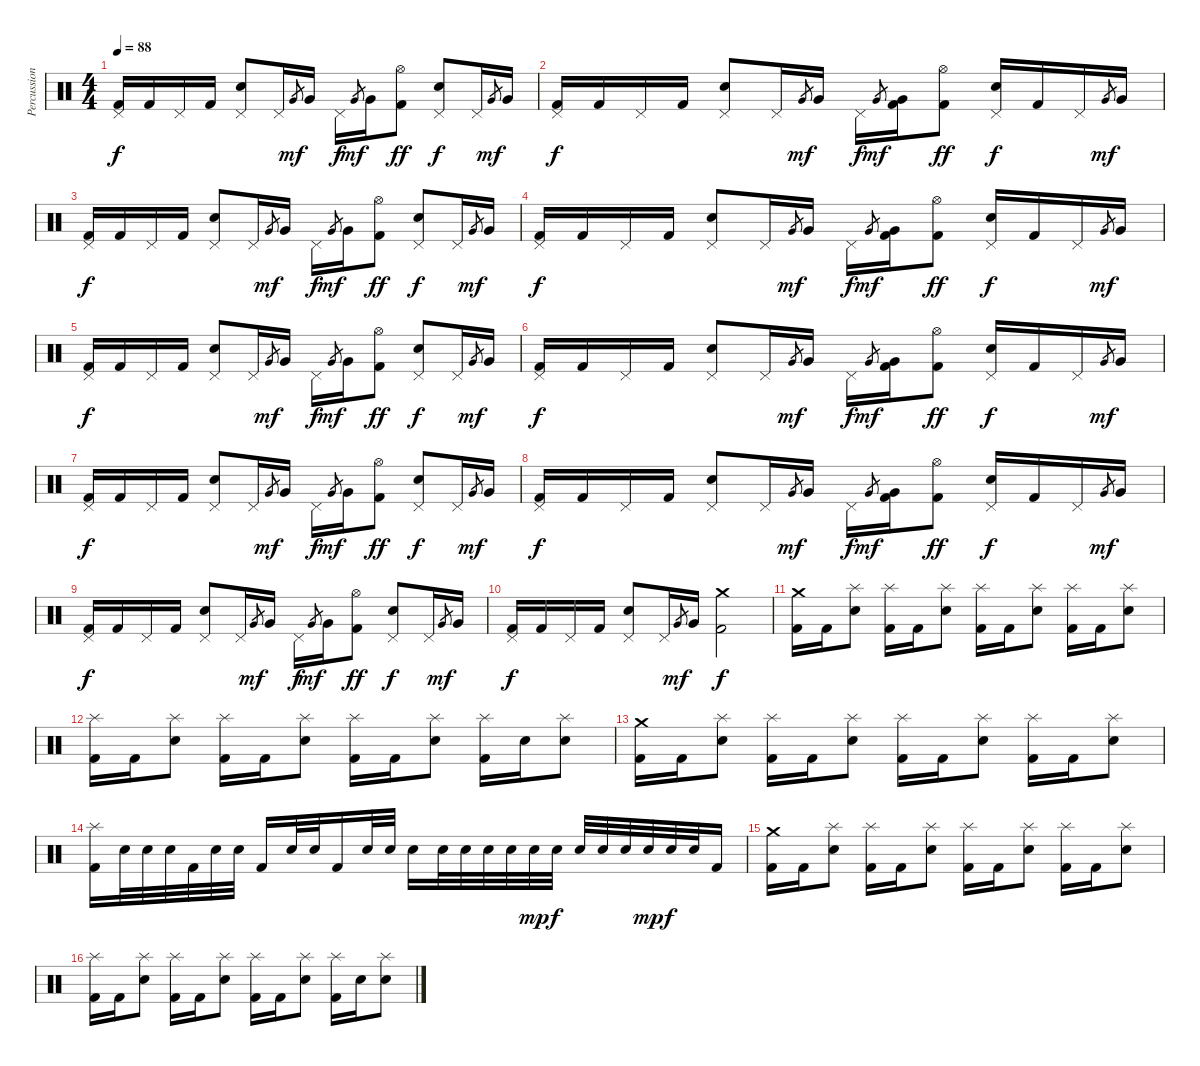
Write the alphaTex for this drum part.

\track ("Percussion" "Percussion") {instrument percussion}
\staff {score}
\articulation defaults
\ts (4 4)
\tempo 88
\clef neutral
\ks c
("Pedal Hi-Hat (hit)" "Kick (hit) 2").16{dy f} "Kick (hit) 2".16 "Pedal Hi-Hat (hit)".16 "Kick (hit) 2".16 ("Pedal Hi-Hat (hit)" "Electric Snare (hit)").8 "Pedal Hi-Hat (hit)".16 "Very Low Tom (hit)"{sl}.8{gr dy mf} "Very Low Tom (hit)".16 "Pedal Hi-Hat (hit)".16{dy f} "Very Low Tom (hit)"{sl}.8{gr dy mf} "Very Low Tom (hit)".16 ("Hi-Hat (open)" "Kick (hit) 2").8{dy ff} ("Pedal Hi-Hat (hit)" "Electric Snare (hit)").8{dy f} "Pedal Hi-Hat (hit)".16 "Very Low Tom (hit)"{sl}.8{gr dy mf} "Very Low Tom (hit)".16 |
("Pedal Hi-Hat (hit)" "Kick (hit) 2").16{dy f} "Kick (hit) 2".16 "Pedal Hi-Hat (hit)".16 "Kick (hit) 2".16 ("Pedal Hi-Hat (hit)" "Electric Snare (hit)").8 "Pedal Hi-Hat (hit)".16 "Very Low Tom (hit)"{sl}.8{gr dy mf} "Very Low Tom (hit)".16 "Pedal Hi-Hat (hit)".16{dy f} "Very Low Tom (hit)"{sl}.8{gr dy mf} ("Very Low Tom (hit)" "Kick (hit) 2").16 ("Hi-Hat (open)" "Kick (hit) 2").8{dy ff} ("Pedal Hi-Hat (hit)" "Electric Snare (hit)").16{dy f} "Kick (hit) 2".16 "Pedal Hi-Hat (hit)".16 "Very Low Tom (hit)"{sl}.8{gr dy mf} "Very Low Tom (hit)".16 |
("Pedal Hi-Hat (hit)" "Kick (hit) 2").16{dy f} "Kick (hit) 2".16 "Pedal Hi-Hat (hit)".16 "Kick (hit) 2".16 ("Pedal Hi-Hat (hit)" "Electric Snare (hit)").8 "Pedal Hi-Hat (hit)".16 "Very Low Tom (hit)"{sl}.8{gr dy mf} "Very Low Tom (hit)".16 "Pedal Hi-Hat (hit)".16{dy f} "Very Low Tom (hit)"{sl}.8{gr dy mf} "Very Low Tom (hit)".16 ("Hi-Hat (open)" "Kick (hit) 2").8{dy ff} ("Pedal Hi-Hat (hit)" "Electric Snare (hit)").8{dy f} "Pedal Hi-Hat (hit)".16 "Very Low Tom (hit)"{sl}.8{gr dy mf} "Very Low Tom (hit)".16 |
("Pedal Hi-Hat (hit)" "Kick (hit) 2").16{dy f} "Kick (hit) 2".16 "Pedal Hi-Hat (hit)".16 "Kick (hit) 2".16 ("Pedal Hi-Hat (hit)" "Electric Snare (hit)").8 "Pedal Hi-Hat (hit)".16 "Very Low Tom (hit)"{sl}.8{gr dy mf} "Very Low Tom (hit)".16 "Pedal Hi-Hat (hit)".16{dy f} "Very Low Tom (hit)"{sl}.8{gr dy mf} ("Very Low Tom (hit)" "Kick (hit) 2").16 ("Hi-Hat (open)" "Kick (hit) 2").8{dy ff} ("Pedal Hi-Hat (hit)" "Electric Snare (hit)").16{dy f} "Kick (hit) 2".16 "Pedal Hi-Hat (hit)".16 "Very Low Tom (hit)"{sl}.8{gr dy mf} "Very Low Tom (hit)".16 |
("Pedal Hi-Hat (hit)" "Kick (hit) 2").16{dy f} "Kick (hit) 2".16 "Pedal Hi-Hat (hit)".16 "Kick (hit) 2".16 ("Pedal Hi-Hat (hit)" "Electric Snare (hit)").8 "Pedal Hi-Hat (hit)".16 "Very Low Tom (hit)"{sl}.8{gr dy mf} "Very Low Tom (hit)".16 "Pedal Hi-Hat (hit)".16{dy f} "Very Low Tom (hit)"{sl}.8{gr dy mf} "Very Low Tom (hit)".16 ("Hi-Hat (open)" "Kick (hit) 2").8{dy ff} ("Pedal Hi-Hat (hit)" "Electric Snare (hit)").8{dy f} "Pedal Hi-Hat (hit)".16 "Very Low Tom (hit)"{sl}.8{gr dy mf} "Very Low Tom (hit)".16 |
("Pedal Hi-Hat (hit)" "Kick (hit) 2").16{dy f} "Kick (hit) 2".16 "Pedal Hi-Hat (hit)".16 "Kick (hit) 2".16 ("Pedal Hi-Hat (hit)" "Electric Snare (hit)").8 "Pedal Hi-Hat (hit)".16 "Very Low Tom (hit)"{sl}.8{gr dy mf} "Very Low Tom (hit)".16 "Pedal Hi-Hat (hit)".16{dy f} "Very Low Tom (hit)"{sl}.8{gr dy mf} ("Very Low Tom (hit)" "Kick (hit) 2").16 ("Hi-Hat (open)" "Kick (hit) 2").8{dy ff} ("Pedal Hi-Hat (hit)" "Electric Snare (hit)").16{dy f} "Kick (hit) 2".16 "Pedal Hi-Hat (hit)".16 "Very Low Tom (hit)"{sl}.8{gr dy mf} "Very Low Tom (hit)".16 |
("Pedal Hi-Hat (hit)" "Kick (hit) 2").16{dy f} "Kick (hit) 2".16 "Pedal Hi-Hat (hit)".16 "Kick (hit) 2".16 ("Pedal Hi-Hat (hit)" "Electric Snare (hit)").8 "Pedal Hi-Hat (hit)".16 "Very Low Tom (hit)"{sl}.8{gr dy mf} "Very Low Tom (hit)".16 "Pedal Hi-Hat (hit)".16{dy f} "Very Low Tom (hit)"{sl}.8{gr dy mf} "Very Low Tom (hit)".16 ("Hi-Hat (open)" "Kick (hit) 2").8{dy ff} ("Pedal Hi-Hat (hit)" "Electric Snare (hit)").8{dy f} "Pedal Hi-Hat (hit)".16 "Very Low Tom (hit)"{sl}.8{gr dy mf} "Very Low Tom (hit)".16 |
("Pedal Hi-Hat (hit)" "Kick (hit) 2").16{dy f} "Kick (hit) 2".16 "Pedal Hi-Hat (hit)".16 "Kick (hit) 2".16 ("Pedal Hi-Hat (hit)" "Electric Snare (hit)").8 "Pedal Hi-Hat (hit)".16 "Very Low Tom (hit)"{sl}.8{gr dy mf} "Very Low Tom (hit)".16 "Pedal Hi-Hat (hit)".16{dy f} "Very Low Tom (hit)"{sl}.8{gr dy mf} ("Very Low Tom (hit)" "Kick (hit) 2").16 ("Hi-Hat (open)" "Kick (hit) 2").8{dy ff} ("Pedal Hi-Hat (hit)" "Electric Snare (hit)").16{dy f} "Kick (hit) 2".16 "Pedal Hi-Hat (hit)".16 "Very Low Tom (hit)"{sl}.8{gr dy mf} "Very Low Tom (hit)".16 |
("Pedal Hi-Hat (hit)" "Kick (hit) 2").16{dy f} "Kick (hit) 2".16 "Pedal Hi-Hat (hit)".16 "Kick (hit) 2".16 ("Pedal Hi-Hat (hit)" "Electric Snare (hit)").8 "Pedal Hi-Hat (hit)".16 "Very Low Tom (hit)"{sl}.8{gr dy mf} "Very Low Tom (hit)".16 "Pedal Hi-Hat (hit)".16{dy f} "Very Low Tom (hit)"{sl}.8{gr dy mf} "Very Low Tom (hit)".16 ("Hi-Hat (open)" "Kick (hit) 2").8{dy ff} ("Pedal Hi-Hat (hit)" "Electric Snare (hit)").8{dy f} "Pedal Hi-Hat (hit)".16 "Very Low Tom (hit)"{sl}.8{gr dy mf} "Very Low Tom (hit)".16 |
("Pedal Hi-Hat (hit)" "Kick (hit) 2").16{dy f} "Kick (hit) 2".16 "Pedal Hi-Hat (hit)".16 "Kick (hit) 2".16 ("Pedal Hi-Hat (hit)" "Electric Snare (hit)").8 "Pedal Hi-Hat (hit)".16 "Very Low Tom (hit)"{sl}.8{gr dy mf} "Very Low Tom (hit)".16 ("Crash medium (hit)" "Kick (hit) 2").2{dy f} |
("Crash medium (hit)" "Kick (hit) 2").16 "Kick (hit) 2".16 ("Splash (hit)" "Electric Snare (hit)").8 ("Splash (hit)" "Kick (hit) 2").16 "Kick (hit) 2".16 ("Splash (hit)" "Electric Snare (hit)").8 ("Splash (hit)" "Kick (hit) 2").16 "Kick (hit) 2".16 ("Splash (hit)" "Electric Snare (hit)").8 ("Splash (hit)" "Kick (hit) 2").16 "Kick (hit) 2".16 ("Splash (hit)" "Electric Snare (hit)").8 |
("Splash (hit)" "Kick (hit) 2").16 "Kick (hit) 2".16 ("Splash (hit)" "Electric Snare (hit)").8 ("Splash (hit)" "Kick (hit) 2").16 "Kick (hit) 2".16 ("Splash (hit)" "Electric Snare (hit)").8 ("Splash (hit)" "Kick (hit) 2").16 "Kick (hit) 2".16 ("Splash (hit)" "Electric Snare (hit)").8 ("Splash (hit)" "Kick (hit) 2").16 "Electric Snare (hit)".16 ("Splash (hit)" "Electric Snare (hit)").8 |
("Crash medium (hit)" "Kick (hit) 2").16 "Kick (hit) 2".16 ("Splash (hit)" "Electric Snare (hit)").8 ("Splash (hit)" "Kick (hit) 2").16 "Kick (hit) 2".16 ("Splash (hit)" "Electric Snare (hit)").8 ("Splash (hit)" "Kick (hit) 2").16 "Kick (hit) 2".16 ("Splash (hit)" "Electric Snare (hit)").8 ("Splash (hit)" "Kick (hit) 2").16 "Kick (hit) 2".16 ("Splash (hit)" "Electric Snare (hit)").8 |
("Splash (hit)" "Kick (hit) 2").16 "Electric Snare (hit)".32 "Electric Snare (hit)".32 "Electric Snare (hit)".32 "Kick (hit) 2".32 "Electric Snare (hit)".32 "Electric Snare (hit)".32 "Kick (hit) 2".16 "Electric Snare (hit)".32 "Electric Snare (hit)".32 "Kick (hit) 2".16 "Electric Snare (hit)".32 "Electric Snare (hit)".32 "Electric Snare (hit)".16 "Electric Snare (hit)".32 "Electric Snare (hit)".32 "Electric Snare (hit)".32 "Electric Snare (hit)".32 "Electric Snare (hit)".32{dy mp} "Electric Snare (hit)".32{dy f} "Electric Snare (hit)".32 "Electric Snare (hit)".32 "Electric Snare (hit)".32 "Electric Snare (hit)".32{dy mp} "Electric Snare (hit)".32{dy f} "Electric Snare (hit)".32 "Kick (hit) 2".16 |
("Crash medium (hit)" "Kick (hit) 2").16 "Kick (hit) 2".16 ("Splash (hit)" "Electric Snare (hit)").8 ("Splash (hit)" "Kick (hit) 2").16 "Kick (hit) 2".16 ("Splash (hit)" "Electric Snare (hit)").8 ("Splash (hit)" "Kick (hit) 2").16 "Kick (hit) 2".16 ("Splash (hit)" "Electric Snare (hit)").8 ("Splash (hit)" "Kick (hit) 2").16 "Kick (hit) 2".16 ("Splash (hit)" "Electric Snare (hit)").8 |
("Splash (hit)" "Kick (hit) 2").16 "Kick (hit) 2".16 ("Splash (hit)" "Electric Snare (hit)").8 ("Splash (hit)" "Kick (hit) 2").16 "Kick (hit) 2".16 ("Splash (hit)" "Electric Snare (hit)").8 ("Splash (hit)" "Kick (hit) 2").16 "Kick (hit) 2".16 ("Splash (hit)" "Electric Snare (hit)").8 ("Splash (hit)" "Kick (hit) 2").16 "Electric Snare (hit)".16 ("Splash (hit)" "Electric Snare (hit)").8
